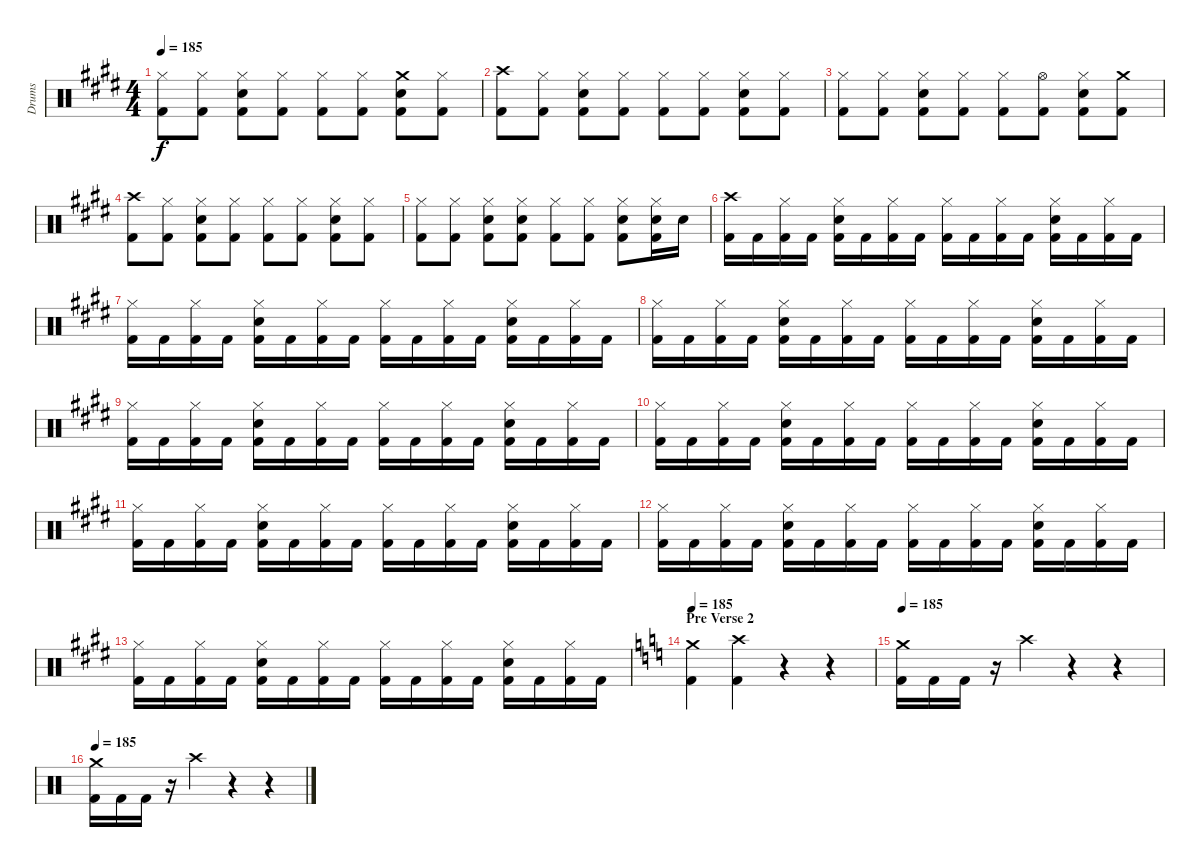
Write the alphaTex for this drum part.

\track ("Drums" "Drums") {instrument percussion}
\staff {score}
\articulation defaults
\ts (4 4)
\tempo 185
\clef neutral
\ks e
("Hi-Hat (closed)" "Kick (hit) 2").8{dy f} ("Hi-Hat (closed)" "Kick (hit) 2").8 ("Hi-Hat (closed)" "Electric Snare (hit)" "Kick (hit) 2").8 ("Hi-Hat (closed)" "Kick (hit) 2").8 ("Hi-Hat (closed)" "Kick (hit) 2").8 ("Hi-Hat (closed)" "Kick (hit) 2").8 ("Crash medium (hit)" "Electric Snare (hit)" "Kick (hit) 2").8 ("Hi-Hat (closed)" "Kick (hit) 2").8 |
("Crash high (hit)" "Kick (hit) 2").8 ("Hi-Hat (closed)" "Kick (hit) 2").8 ("Hi-Hat (closed)" "Electric Snare (hit)" "Kick (hit) 2").8 ("Hi-Hat (closed)" "Kick (hit) 2").8 ("Hi-Hat (closed)" "Kick (hit) 2").8 ("Hi-Hat (closed)" "Kick (hit) 2").8 ("Hi-Hat (closed)" "Electric Snare (hit)" "Kick (hit) 2").8 ("Hi-Hat (closed)" "Kick (hit) 2").8 |
("Hi-Hat (closed)" "Kick (hit) 2").8 ("Hi-Hat (closed)" "Kick (hit) 2").8 ("Hi-Hat (closed)" "Electric Snare (hit)" "Kick (hit) 2").8 ("Hi-Hat (closed)" "Kick (hit) 2").8 ("Hi-Hat (closed)" "Kick (hit) 2").8 ("Hi-Hat (open)" "Kick (hit) 2").8 ("Hi-Hat (closed)" "Electric Snare (hit)" "Kick (hit) 2").8 ("Crash medium (hit)" "Kick (hit) 2").8 |
("Crash high (hit)" "Kick (hit) 2").8 ("Hi-Hat (closed)" "Kick (hit) 2").8 ("Hi-Hat (closed)" "Electric Snare (hit)" "Kick (hit) 2").8 ("Hi-Hat (closed)" "Kick (hit) 2").8 ("Hi-Hat (closed)" "Kick (hit) 2").8 ("Hi-Hat (closed)" "Kick (hit) 2").8 ("Hi-Hat (closed)" "Electric Snare (hit)" "Kick (hit) 2").8 ("Hi-Hat (closed)" "Kick (hit) 2").8 |
("Hi-Hat (closed)" "Kick (hit) 2").8 ("Hi-Hat (closed)" "Kick (hit) 2").8 ("Hi-Hat (closed)" "Electric Snare (hit)" "Kick (hit) 2").8 ("Hi-Hat (closed)" "Electric Snare (hit)" "Kick (hit) 2").8 ("Hi-Hat (closed)" "Kick (hit) 2").8 ("Hi-Hat (closed)" "Kick (hit) 2").8 ("Hi-Hat (closed)" "Electric Snare (hit)" "Kick (hit) 2").8 ("Hi-Hat (closed)" "Electric Snare (hit)" "Kick (hit) 2").16 "Electric Snare (hit)".16 |
("Crash high (hit)" "Kick (hit) 2").16 "Kick (hit) 2".16 ("Hi-Hat (closed)" "Kick (hit) 2").16 "Kick (hit) 2".16 ("Hi-Hat (closed)" "Electric Snare (hit)" "Kick (hit) 2").16 "Kick (hit) 2".16 ("Hi-Hat (closed)" "Kick (hit) 2").16 "Kick (hit) 2".16 ("Hi-Hat (closed)" "Kick (hit) 2").16 "Kick (hit) 2".16 ("Hi-Hat (closed)" "Kick (hit) 2").16 "Kick (hit) 2".16 ("Hi-Hat (closed)" "Electric Snare (hit)" "Kick (hit) 2").16 "Kick (hit) 2".16 ("Hi-Hat (closed)" "Kick (hit) 2").16 "Kick (hit) 2".16 |
("Hi-Hat (closed)" "Kick (hit) 2").16 "Kick (hit) 2".16 ("Hi-Hat (closed)" "Kick (hit) 2").16 "Kick (hit) 2".16 ("Hi-Hat (closed)" "Electric Snare (hit)" "Kick (hit) 2").16 "Kick (hit) 2".16 ("Hi-Hat (closed)" "Kick (hit) 2").16 "Kick (hit) 2".16 ("Hi-Hat (closed)" "Kick (hit) 2").16 "Kick (hit) 2".16 ("Hi-Hat (closed)" "Kick (hit) 2").16 "Kick (hit) 2".16 ("Hi-Hat (closed)" "Electric Snare (hit)" "Kick (hit) 2").16 "Kick (hit) 2".16 ("Hi-Hat (closed)" "Kick (hit) 2").16 "Kick (hit) 2".16 |
("Hi-Hat (closed)" "Kick (hit) 2").16 "Kick (hit) 2".16 ("Hi-Hat (closed)" "Kick (hit) 2").16 "Kick (hit) 2".16 ("Hi-Hat (closed)" "Electric Snare (hit)" "Kick (hit) 2").16 "Kick (hit) 2".16 ("Hi-Hat (closed)" "Kick (hit) 2").16 "Kick (hit) 2".16 ("Hi-Hat (closed)" "Kick (hit) 2").16 "Kick (hit) 2".16 ("Hi-Hat (closed)" "Kick (hit) 2").16 "Kick (hit) 2".16 ("Hi-Hat (closed)" "Electric Snare (hit)" "Kick (hit) 2").16 "Kick (hit) 2".16 ("Hi-Hat (closed)" "Kick (hit) 2").16 "Kick (hit) 2".16 |
("Hi-Hat (closed)" "Kick (hit) 2").16 "Kick (hit) 2".16 ("Hi-Hat (closed)" "Kick (hit) 2").16 "Kick (hit) 2".16 ("Hi-Hat (closed)" "Electric Snare (hit)" "Kick (hit) 2").16 "Kick (hit) 2".16 ("Hi-Hat (closed)" "Kick (hit) 2").16 "Kick (hit) 2".16 ("Hi-Hat (closed)" "Kick (hit) 2").16 "Kick (hit) 2".16 ("Hi-Hat (closed)" "Kick (hit) 2").16 "Kick (hit) 2".16 ("Hi-Hat (closed)" "Electric Snare (hit)" "Kick (hit) 2").16 "Kick (hit) 2".16 ("Hi-Hat (closed)" "Kick (hit) 2").16 "Kick (hit) 2".16 |
("Hi-Hat (closed)" "Kick (hit) 2").16 "Kick (hit) 2".16 ("Hi-Hat (closed)" "Kick (hit) 2").16 "Kick (hit) 2".16 ("Hi-Hat (closed)" "Electric Snare (hit)" "Kick (hit) 2").16 "Kick (hit) 2".16 ("Hi-Hat (closed)" "Kick (hit) 2").16 "Kick (hit) 2".16 ("Hi-Hat (closed)" "Kick (hit) 2").16 "Kick (hit) 2".16 ("Hi-Hat (closed)" "Kick (hit) 2").16 "Kick (hit) 2".16 ("Hi-Hat (closed)" "Electric Snare (hit)" "Kick (hit) 2").16 "Kick (hit) 2".16 ("Hi-Hat (closed)" "Kick (hit) 2").16 "Kick (hit) 2".16 |
("Hi-Hat (closed)" "Kick (hit) 2").16 "Kick (hit) 2".16 ("Hi-Hat (closed)" "Kick (hit) 2").16 "Kick (hit) 2".16 ("Hi-Hat (closed)" "Electric Snare (hit)" "Kick (hit) 2").16 "Kick (hit) 2".16 ("Hi-Hat (closed)" "Kick (hit) 2").16 "Kick (hit) 2".16 ("Hi-Hat (closed)" "Kick (hit) 2").16 "Kick (hit) 2".16 ("Hi-Hat (closed)" "Kick (hit) 2").16 "Kick (hit) 2".16 ("Hi-Hat (closed)" "Electric Snare (hit)" "Kick (hit) 2").16 "Kick (hit) 2".16 ("Hi-Hat (closed)" "Kick (hit) 2").16 "Kick (hit) 2".16 |
("Hi-Hat (closed)" "Kick (hit) 2").16 "Kick (hit) 2".16 ("Hi-Hat (closed)" "Kick (hit) 2").16 "Kick (hit) 2".16 ("Hi-Hat (closed)" "Electric Snare (hit)" "Kick (hit) 2").16 "Kick (hit) 2".16 ("Hi-Hat (closed)" "Kick (hit) 2").16 "Kick (hit) 2".16 ("Hi-Hat (closed)" "Kick (hit) 2").16 "Kick (hit) 2".16 ("Hi-Hat (closed)" "Kick (hit) 2").16 "Kick (hit) 2".16 ("Hi-Hat (closed)" "Electric Snare (hit)" "Kick (hit) 2").16 "Kick (hit) 2".16 ("Hi-Hat (closed)" "Kick (hit) 2").16 "Kick (hit) 2".16 |
("Hi-Hat (closed)" "Kick (hit) 2").16 "Kick (hit) 2".16 ("Hi-Hat (closed)" "Kick (hit) 2").16 "Kick (hit) 2".16 ("Hi-Hat (closed)" "Electric Snare (hit)" "Kick (hit) 2").16 "Kick (hit) 2".16 ("Hi-Hat (closed)" "Kick (hit) 2").16 "Kick (hit) 2".16 ("Hi-Hat (closed)" "Kick (hit) 2").16 "Kick (hit) 2".16 ("Hi-Hat (closed)" "Kick (hit) 2").16 "Kick (hit) 2".16 ("Hi-Hat (closed)" "Electric Snare (hit)" "Kick (hit) 2").16 "Kick (hit) 2".16 ("Hi-Hat (closed)" "Kick (hit) 2").16 "Kick (hit) 2".16 |
\section ("" "Pre Verse 2")
\tempo 185
\ks c
("Crash medium (hit)" "Kick (hit) 2").4 ("Crash high (hit)" "Kick (hit) 2").4 r.4 r.4 |
\tempo 185
("Crash medium (hit)" "Kick (hit) 2").16 "Kick (hit) 2".16 "Kick (hit) 2".16 r.16 "Crash high (hit)".4 r.4 r.4 |
\tempo 185
("Crash medium (hit)" "Kick (hit) 2").16 "Kick (hit) 2".16 "Kick (hit) 2".16 r.16 "Crash high (hit)".4 r.4 r.4
